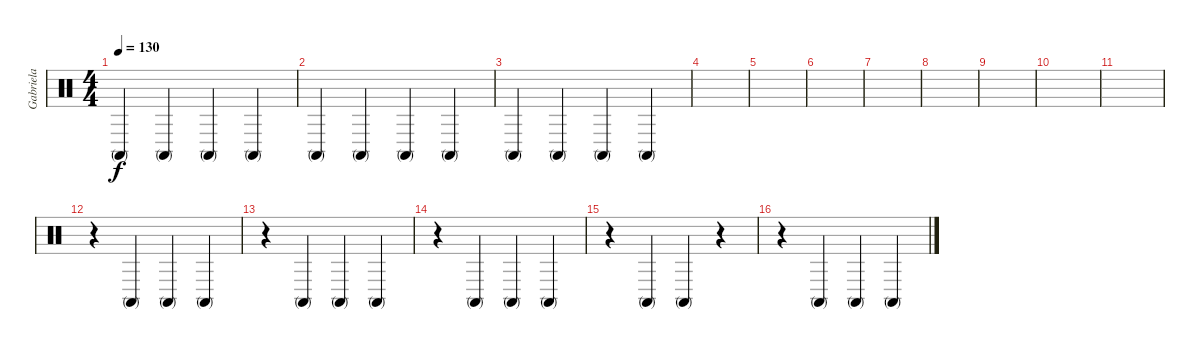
\track ("Gabriela " "Gabriela ") {instrument percussion}
\staff {score}
\articulation defaults
\ts (4 4)
\tempo 130
\clef neutral
\ks c "Conga high (mute)".4{dy f} "Conga high (mute)".4 "Conga high (mute)".4 "Conga high (mute)".4
|
"Conga high (mute)".4 "Conga high (mute)".4 "Conga high (mute)".4 "Conga high (mute)".4 |
"Conga high (mute)".4 "Conga high (mute)".4 "Conga high (mute)".4 "Conga high (mute)".4 |
|
|
|
|
|
|
|
|
r.4 "Conga high (mute)".4 "Conga high (mute)".4 "Conga high (mute)".4 |
r.4 "Conga high (mute)".4 "Conga high (mute)".4 "Conga high (mute)".4 |
r.4 "Conga high (mute)".4 "Conga high (mute)".4 "Conga high (mute)".4 |
r.4 "Conga high (mute)".4 "Conga high (mute)".4 r.4 |
r.4 "Conga high (mute)".4 "Conga high (mute)".4 "Conga high (mute)".4
